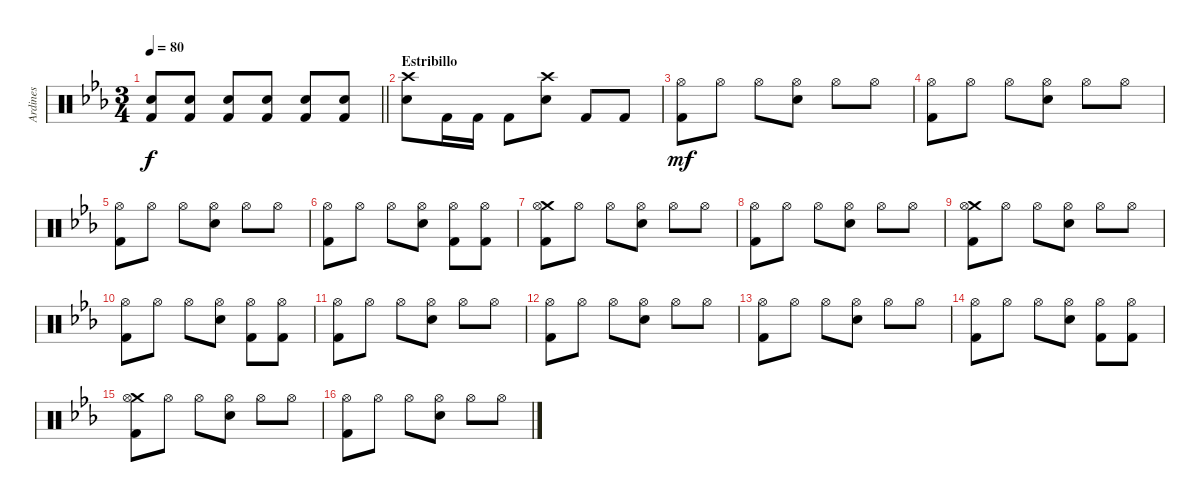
\track ("Ardines" "Ardines") {instrument percussion}
\staff {score}
\articulation defaults
\ts (3 4)
\tempo 80
\clef neutral
\barLineRight lightlight
\ks eb
("Snare (hit) 2" "Kick (hit) 2").8{dy f} ("Snare (hit) 2" "Kick (hit) 2").8 ("Snare (hit) 2" "Kick (hit) 2").8 ("Snare (hit) 2" "Kick (hit) 2").8 ("Snare (hit) 2" "Kick (hit) 2").8 ("Snare (hit) 2" "Kick (hit) 2").8 |
\section ("" "Estribillo")
("Snare (hit) 2" "Crash high (hit)").8 "Kick (hit) 2".16 "Kick (hit) 2".16 "Kick (hit) 2".8 ("Snare (hit) 2" "Crash high (hit)").8 "Kick (hit) 2".8 "Kick (hit) 2".8 |
("Kick (hit) 2" "Hi-Hat (open)").8{dy mf} "Hi-Hat (open)".8 "Hi-Hat (open)".8 ("Snare (hit) 2" "Hi-Hat (open)").8 "Hi-Hat (open)".8 "Hi-Hat (open)".8 |
("Kick (hit) 2" "Hi-Hat (open)").8 "Hi-Hat (open)".8 "Hi-Hat (open)".8 ("Snare (hit) 2" "Hi-Hat (open)").8 "Hi-Hat (open)".8 "Hi-Hat (open)".8 |
("Kick (hit) 2" "Hi-Hat (open)").8 "Hi-Hat (open)".8 "Hi-Hat (open)".8 ("Snare (hit) 2" "Hi-Hat (open)").8 "Hi-Hat (open)".8 "Hi-Hat (open)".8 |
("Kick (hit) 2" "Hi-Hat (open)").8 "Hi-Hat (open)".8 "Hi-Hat (open)".8 ("Snare (hit) 2" "Hi-Hat (open)").8 ("Kick (hit) 2" "Hi-Hat (open)").8 ("Kick (hit) 2" "Hi-Hat (open)").8 |
("Kick (hit) 2" "Crash medium (hit)" "Hi-Hat (open)").8 "Hi-Hat (open)".8 "Hi-Hat (open)".8 ("Snare (hit) 2" "Hi-Hat (open)").8 "Hi-Hat (open)".8 "Hi-Hat (open)".8 |
("Kick (hit) 2" "Hi-Hat (open)").8 "Hi-Hat (open)".8 "Hi-Hat (open)".8 ("Snare (hit) 2" "Hi-Hat (open)").8 "Hi-Hat (open)".8 "Hi-Hat (open)".8 |
("Kick (hit) 2" "Crash medium (hit)" "Hi-Hat (open)").8 "Hi-Hat (open)".8 "Hi-Hat (open)".8 ("Snare (hit) 2" "Hi-Hat (open)").8 "Hi-Hat (open)".8 "Hi-Hat (open)".8 |
("Kick (hit) 2" "Hi-Hat (open)").8 "Hi-Hat (open)".8 "Hi-Hat (open)".8 ("Snare (hit) 2" "Hi-Hat (open)").8 ("Kick (hit) 2" "Hi-Hat (open)").8 ("Kick (hit) 2" "Hi-Hat (open)").8 |
("Kick (hit) 2" "Hi-Hat (open)").8 "Hi-Hat (open)".8 "Hi-Hat (open)".8 ("Snare (hit) 2" "Hi-Hat (open)").8 "Hi-Hat (open)".8 "Hi-Hat (open)".8 |
("Kick (hit) 2" "Hi-Hat (open)").8 "Hi-Hat (open)".8 "Hi-Hat (open)".8 ("Snare (hit) 2" "Hi-Hat (open)").8 "Hi-Hat (open)".8 "Hi-Hat (open)".8 |
("Kick (hit) 2" "Hi-Hat (open)").8 "Hi-Hat (open)".8 "Hi-Hat (open)".8 ("Snare (hit) 2" "Hi-Hat (open)").8 "Hi-Hat (open)".8 "Hi-Hat (open)".8 |
("Kick (hit) 2" "Hi-Hat (open)").8 "Hi-Hat (open)".8 "Hi-Hat (open)".8 ("Snare (hit) 2" "Hi-Hat (open)").8 ("Kick (hit) 2" "Hi-Hat (open)").8 ("Kick (hit) 2" "Hi-Hat (open)").8 |
("Kick (hit) 2" "Crash medium (hit)" "Hi-Hat (open)").8 "Hi-Hat (open)".8 "Hi-Hat (open)".8 ("Snare (hit) 2" "Hi-Hat (open)").8 "Hi-Hat (open)".8 "Hi-Hat (open)".8 |
("Kick (hit) 2" "Hi-Hat (open)").8 "Hi-Hat (open)".8 "Hi-Hat (open)".8 ("Snare (hit) 2" "Hi-Hat (open)").8 "Hi-Hat (open)".8 "Hi-Hat (open)".8
